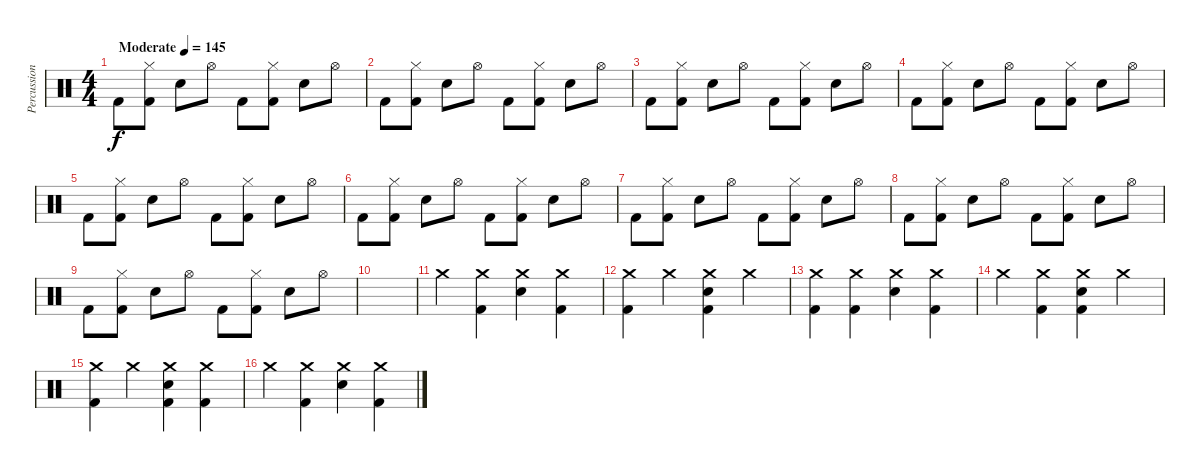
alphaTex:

\track ("Percussion" "Percussion") {instrument percussion}
\staff
\articulation defaults
\ts (4 4)
\tempo (145 "Moderate")
\clef neutral
\ks c "Kick (hit) 2".8{dy f}
("Kick (hit) 2" "Hi-Hat (closed)").8 "Electric Snare (hit)".8 "Hi-Hat (open)".8 "Kick (hit) 2".8 ("Kick (hit) 2" "Hi-Hat (closed)").8 "Electric Snare (hit)".8 "Hi-Hat (open)".8 |
"Kick (hit) 2".8 ("Kick (hit) 2" "Hi-Hat (closed)").8 "Electric Snare (hit)".8 "Hi-Hat (open)".8 "Kick (hit) 2".8 ("Kick (hit) 2" "Hi-Hat (closed)").8 "Electric Snare (hit)".8 "Hi-Hat (open)".8 |
"Kick (hit) 2".8 ("Kick (hit) 2" "Hi-Hat (closed)").8 "Electric Snare (hit)".8 "Hi-Hat (open)".8 "Kick (hit) 2".8 ("Kick (hit) 2" "Hi-Hat (closed)").8 "Electric Snare (hit)".8 "Hi-Hat (open)".8 |
"Kick (hit) 2".8 ("Kick (hit) 2" "Hi-Hat (closed)").8 "Electric Snare (hit)".8 "Hi-Hat (open)".8 "Kick (hit) 2".8 ("Kick (hit) 2" "Hi-Hat (closed)").8 "Electric Snare (hit)".8 "Hi-Hat (open)".8 |
"Kick (hit) 2".8 ("Kick (hit) 2" "Hi-Hat (closed)").8 "Electric Snare (hit)".8 "Hi-Hat (open)".8 "Kick (hit) 2".8 ("Kick (hit) 2" "Hi-Hat (closed)").8 "Electric Snare (hit)".8 "Hi-Hat (open)".8 |
"Kick (hit) 2".8 ("Kick (hit) 2" "Hi-Hat (closed)").8 "Electric Snare (hit)".8 "Hi-Hat (open)".8 "Kick (hit) 2".8 ("Kick (hit) 2" "Hi-Hat (closed)").8 "Electric Snare (hit)".8 "Hi-Hat (open)".8 |
"Kick (hit) 2".8 ("Kick (hit) 2" "Hi-Hat (closed)").8 "Electric Snare (hit)".8 "Hi-Hat (open)".8 "Kick (hit) 2".8 ("Kick (hit) 2" "Hi-Hat (closed)").8 "Electric Snare (hit)".8 "Hi-Hat (open)".8 |
"Kick (hit) 2".8 ("Kick (hit) 2" "Hi-Hat (closed)").8 "Electric Snare (hit)".8 "Hi-Hat (open)".8 "Kick (hit) 2".8 ("Kick (hit) 2" "Hi-Hat (closed)").8 "Electric Snare (hit)".8 "Hi-Hat (open)".8 |
"Kick (hit) 2".8 ("Kick (hit) 2" "Hi-Hat (closed)").8 "Electric Snare (hit)".8 "Hi-Hat (open)".8 "Kick (hit) 2".8 ("Kick (hit) 2" "Hi-Hat (closed)").8 "Electric Snare (hit)".8 "Hi-Hat (open)".8 |
|
"Crash medium (hit)".4 ("Kick (hit) 2" "Crash medium (hit)").4 ("Electric Snare (hit)" "Crash medium (hit)").4 ("Kick (hit) 2" "Crash medium (hit)").4 |
("Kick (hit) 2" "Crash medium (hit)").4 "Crash medium (hit)".4 ("Kick (hit) 2" "Electric Snare (hit)" "Crash medium (hit)").4 "Crash medium (hit)".4 |
("Kick (hit) 2" "Crash medium (hit)").4 ("Kick (hit) 2" "Crash medium (hit)").4 ("Electric Snare (hit)" "Crash medium (hit)").4 ("Kick (hit) 2" "Crash medium (hit)").4 |
"Crash medium (hit)".4 ("Kick (hit) 2" "Crash medium (hit)").4 ("Kick (hit) 2" "Electric Snare (hit)" "Crash medium (hit)").4 "Crash medium (hit)".4 |
("Kick (hit) 2" "Crash medium (hit)").4 "Crash medium (hit)".4 ("Kick (hit) 2" "Electric Snare (hit)" "Crash medium (hit)").4 ("Kick (hit) 2" "Crash medium (hit)").4 |
"Crash medium (hit)".4 ("Kick (hit) 2" "Crash medium (hit)").4 ("Electric Snare (hit)" "Crash medium (hit)").4 ("Kick (hit) 2" "Crash medium (hit)").4
